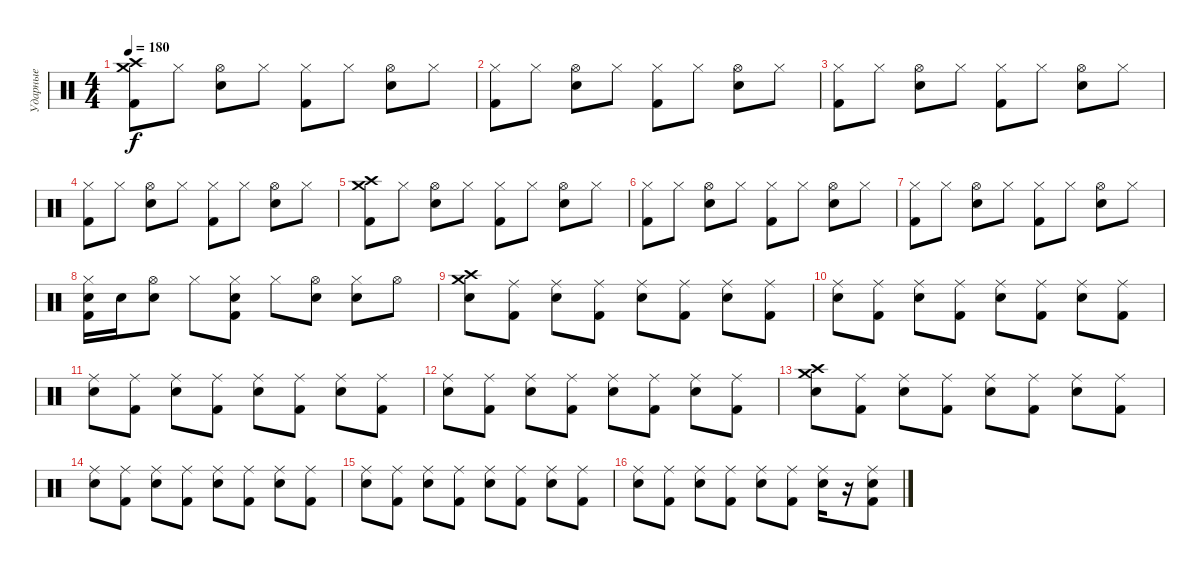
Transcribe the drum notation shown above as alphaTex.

\track ("Ударные" "Ударные") {instrument percussion}
\staff {score}
\articulation defaults
\ts (4 4)
\tempo 180
\clef neutral
\ks c
("Crash high (hit)" "Crash medium (hit)" "Kick (hit) 2").8{dy f} "Hi-Hat (closed)".8 ("Hi-Hat (open)" "Snare (hit) 2").8 "Hi-Hat (closed)".8 ("Hi-Hat (closed)" "Kick (hit) 2").8 "Hi-Hat (closed)".8 ("Hi-Hat (open)" "Snare (hit) 2").8 "Hi-Hat (closed)".8 |
("Hi-Hat (closed)" "Kick (hit) 2").8 "Hi-Hat (closed)".8 ("Hi-Hat (open)" "Snare (hit) 2").8 "Hi-Hat (closed)".8 ("Hi-Hat (closed)" "Kick (hit) 2").8 "Hi-Hat (closed)".8 ("Hi-Hat (open)" "Snare (hit) 2").8 "Hi-Hat (closed)".8 |
("Hi-Hat (closed)" "Kick (hit) 2").8 "Hi-Hat (closed)".8 ("Hi-Hat (open)" "Snare (hit) 2").8 "Hi-Hat (closed)".8 ("Hi-Hat (closed)" "Kick (hit) 2").8 "Hi-Hat (closed)".8 ("Hi-Hat (open)" "Snare (hit) 2").8 "Hi-Hat (closed)".8 |
("Hi-Hat (closed)" "Kick (hit) 2").8 "Hi-Hat (closed)".8 ("Hi-Hat (open)" "Snare (hit) 2").8 "Hi-Hat (closed)".8 ("Hi-Hat (closed)" "Kick (hit) 2").8 "Hi-Hat (closed)".8 ("Hi-Hat (open)" "Snare (hit) 2").8 "Hi-Hat (closed)".8 |
("Crash high (hit)" "Crash medium (hit)" "Kick (hit) 2").8 "Hi-Hat (closed)".8 ("Hi-Hat (open)" "Snare (hit) 2").8 "Hi-Hat (closed)".8 ("Hi-Hat (closed)" "Kick (hit) 2").8 "Hi-Hat (closed)".8 ("Hi-Hat (open)" "Snare (hit) 2").8 "Hi-Hat (closed)".8 |
("Hi-Hat (closed)" "Kick (hit) 2").8 "Hi-Hat (closed)".8 ("Hi-Hat (open)" "Snare (hit) 2").8 "Hi-Hat (closed)".8 ("Hi-Hat (closed)" "Kick (hit) 2").8 "Hi-Hat (closed)".8 ("Hi-Hat (open)" "Snare (hit) 2").8 "Hi-Hat (closed)".8 |
("Hi-Hat (closed)" "Kick (hit) 2").8 "Hi-Hat (closed)".8 ("Hi-Hat (open)" "Snare (hit) 2").8 "Hi-Hat (closed)".8 ("Hi-Hat (closed)" "Kick (hit) 2").8 "Hi-Hat (closed)".8 ("Hi-Hat (open)" "Snare (hit) 2").8 "Hi-Hat (closed)".8 |
("Hi-Hat (closed)" "Snare (hit) 2" "Kick (hit) 2").16 "Snare (hit) 2".16 ("Hi-Hat (open)" "Snare (hit) 2").8 "Hi-Hat (closed)".8 ("Hi-Hat (closed)" "Snare (hit) 2" "Kick (hit) 2").8 "Hi-Hat (closed)".8 ("Hi-Hat (open)" "Snare (hit) 2").8 ("Hi-Hat (closed)" "Snare (hit) 2").8 "Hi-Hat (open)".8 |
("Crash high (hit)" "Snare (hit) 2" "Crash medium (hit)").8 ("Ride (middle)" "Kick (hit) 2").8 ("Ride (middle)" "Snare (hit) 2").8 ("Ride (middle)" "Kick (hit) 2").8 ("Ride (middle)" "Snare (hit) 2").8 ("Ride (middle)" "Kick (hit) 2").8 ("Ride (middle)" "Snare (hit) 2").8 ("Ride (middle)" "Kick (hit) 2").8 |
("Ride (middle)" "Snare (hit) 2").8 ("Ride (middle)" "Kick (hit) 2").8 ("Ride (middle)" "Snare (hit) 2").8 ("Ride (middle)" "Kick (hit) 2").8 ("Ride (middle)" "Snare (hit) 2").8 ("Ride (middle)" "Kick (hit) 2").8 ("Ride (middle)" "Snare (hit) 2").8 ("Ride (middle)" "Kick (hit) 2").8 |
("Ride (middle)" "Snare (hit) 2").8 ("Ride (middle)" "Kick (hit) 2").8 ("Ride (middle)" "Snare (hit) 2").8 ("Ride (middle)" "Kick (hit) 2").8 ("Ride (middle)" "Snare (hit) 2").8 ("Ride (middle)" "Kick (hit) 2").8 ("Ride (middle)" "Snare (hit) 2").8 ("Ride (middle)" "Kick (hit) 2").8 |
("Ride (middle)" "Snare (hit) 2").8 ("Ride (middle)" "Kick (hit) 2").8 ("Ride (middle)" "Snare (hit) 2").8 ("Ride (middle)" "Kick (hit) 2").8 ("Ride (middle)" "Snare (hit) 2").8 ("Ride (middle)" "Kick (hit) 2").8 ("Ride (middle)" "Snare (hit) 2").8 ("Ride (middle)" "Kick (hit) 2").8 |
("Crash high (hit)" "Snare (hit) 2" "Crash medium (hit)").8 ("Ride (middle)" "Kick (hit) 2").8 ("Ride (middle)" "Snare (hit) 2").8 ("Ride (middle)" "Kick (hit) 2").8 ("Ride (middle)" "Snare (hit) 2").8 ("Ride (middle)" "Kick (hit) 2").8 ("Ride (middle)" "Snare (hit) 2").8 ("Ride (middle)" "Kick (hit) 2").8 |
("Ride (middle)" "Snare (hit) 2").8 ("Ride (middle)" "Kick (hit) 2").8 ("Ride (middle)" "Snare (hit) 2").8 ("Ride (middle)" "Kick (hit) 2").8 ("Ride (middle)" "Snare (hit) 2").8 ("Ride (middle)" "Kick (hit) 2").8 ("Ride (middle)" "Snare (hit) 2").8 ("Ride (middle)" "Kick (hit) 2").8 |
("Ride (middle)" "Snare (hit) 2").8 ("Ride (middle)" "Kick (hit) 2").8 ("Ride (middle)" "Snare (hit) 2").8 ("Ride (middle)" "Kick (hit) 2").8 ("Ride (middle)" "Snare (hit) 2").8 ("Ride (middle)" "Kick (hit) 2").8 ("Ride (middle)" "Snare (hit) 2").8 ("Ride (middle)" "Kick (hit) 2").8 |
("Ride (middle)" "Snare (hit) 2").8 ("Ride (middle)" "Kick (hit) 2").8 ("Ride (middle)" "Snare (hit) 2").8 ("Ride (middle)" "Kick (hit) 2").8 ("Ride (middle)" "Snare (hit) 2").8 ("Ride (middle)" "Kick (hit) 2").8 ("Ride (middle)" "Snare (hit) 2").16 r.16 ("Ride (middle)" "Snare (hit) 2" "Kick (hit) 2").8
